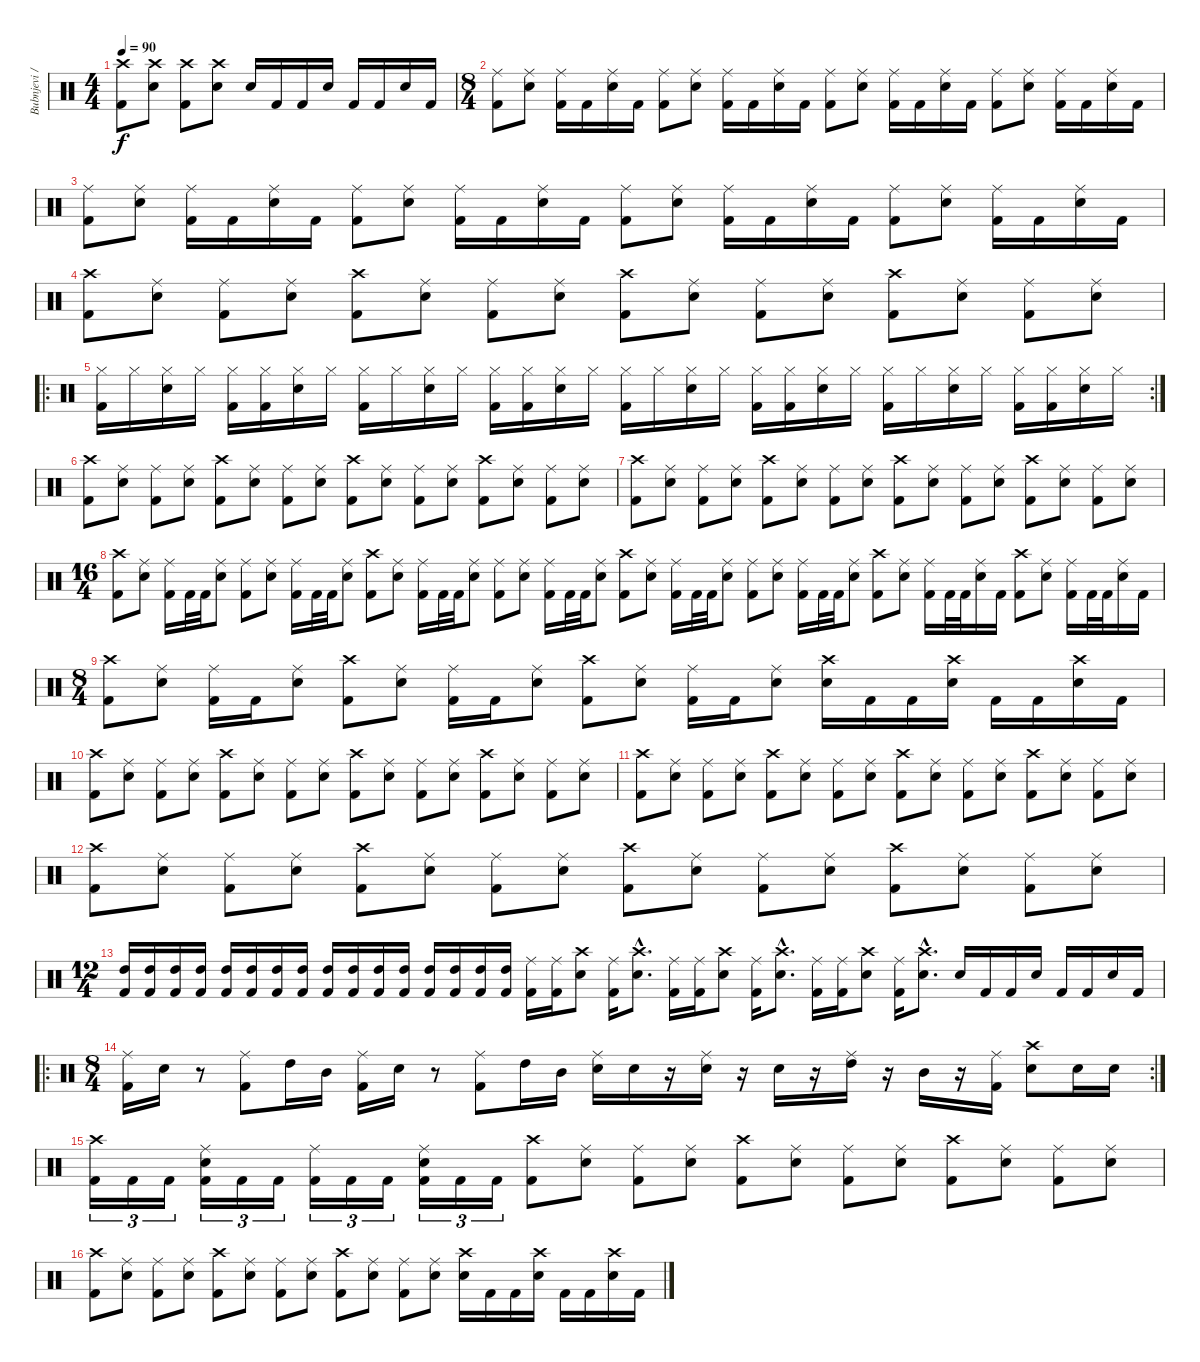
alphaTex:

\track ("Bubnjevi / Drums" "Bubnjevi /") {instrument percussion}
\staff {score}
\articulation defaults
\ts (4 4)
\tempo 90
\clef neutral
\ks c
("Kick (hit) 2" "Crash high (hit)").8{dy f} ("Snare (hit) 2" "Crash high (hit)").8 ("Kick (hit) 2" "Crash high (hit)").8 ("Snare (hit) 2" "Crash high (hit)").8 "Snare (hit) 2".16 "Kick (hit) 2".16 "Kick (hit) 2".16 "Snare (hit) 2".16 "Kick (hit) 2".16 "Kick (hit) 2".16 "Snare (hit) 2".16 "Kick (hit) 2".16 |
\ts (8 4)
("Kick (hit) 2" "Ride (middle)").8 ("Snare (hit) 2" "Ride (middle)").8 ("Kick (hit) 2" "Ride (middle)").16 "Kick (hit) 2".16 ("Snare (hit) 2" "Ride (middle)").16 "Kick (hit) 2".16 ("Kick (hit) 2" "Ride (middle)").8 ("Snare (hit) 2" "Ride (middle)").8 ("Kick (hit) 2" "Ride (middle)").16 "Kick (hit) 2".16 ("Snare (hit) 2" "Ride (middle)").16 "Kick (hit) 2".16 ("Kick (hit) 2" "Ride (middle)").8 ("Snare (hit) 2" "Ride (middle)").8 ("Kick (hit) 2" "Ride (middle)").16 "Kick (hit) 2".16 ("Snare (hit) 2" "Ride (middle)").16 "Kick (hit) 2".16 ("Kick (hit) 2" "Ride (middle)").8 ("Snare (hit) 2" "Ride (middle)").8 ("Kick (hit) 2" "Ride (middle)").16 "Kick (hit) 2".16 ("Snare (hit) 2" "Ride (middle)").16 "Kick (hit) 2".16 |
("Kick (hit) 2" "Ride (middle)").8 ("Snare (hit) 2" "Ride (middle)").8 ("Kick (hit) 2" "Ride (middle)").16 "Kick (hit) 2".16 ("Snare (hit) 2" "Ride (middle)").16 "Kick (hit) 2".16 ("Kick (hit) 2" "Ride (middle)").8 ("Snare (hit) 2" "Ride (middle)").8 ("Kick (hit) 2" "Ride (middle)").16 "Kick (hit) 2".16 ("Snare (hit) 2" "Ride (middle)").16 "Kick (hit) 2".16 ("Kick (hit) 2" "Ride (middle)").8 ("Snare (hit) 2" "Ride (middle)").8 ("Kick (hit) 2" "Ride (middle)").16 "Kick (hit) 2".16 ("Snare (hit) 2" "Ride (middle)").16 "Kick (hit) 2".16 ("Kick (hit) 2" "Ride (middle)").8 ("Snare (hit) 2" "Ride (middle)").8 ("Kick (hit) 2" "Ride (middle)").16 "Kick (hit) 2".16 ("Snare (hit) 2" "Ride (middle)").16 "Kick (hit) 2".16 |
("Kick (hit) 2" "Crash high (hit)").8 ("Snare (hit) 2" "Ride (middle)").8 ("Kick (hit) 2" "Ride (middle)").8 ("Snare (hit) 2" "Ride (middle)").8 ("Kick (hit) 2" "Crash high (hit)").8 ("Snare (hit) 2" "Ride (middle)").8 ("Kick (hit) 2" "Ride (middle)").8 ("Snare (hit) 2" "Ride (middle)").8 ("Kick (hit) 2" "Crash high (hit)").8 ("Snare (hit) 2" "Ride (middle)").8 ("Kick (hit) 2" "Ride (middle)").8 ("Snare (hit) 2" "Ride (middle)").8 ("Kick (hit) 2" "Crash high (hit)").8 ("Snare (hit) 2" "Ride (middle)").8 ("Kick (hit) 2" "Ride (middle)").8 ("Snare (hit) 2" "Ride (middle)").8 |
\ro
\rc 2
("Kick (hit) 2" "Hi-Hat (closed)").16 "Hi-Hat (closed)".16 ("Snare (hit) 2" "Hi-Hat (closed)").16 "Hi-Hat (closed)".16 ("Kick (hit) 2" "Hi-Hat (closed)").16 ("Kick (hit) 2" "Hi-Hat (closed)").16 ("Snare (hit) 2" "Hi-Hat (closed)").16 "Hi-Hat (closed)".16 ("Kick (hit) 2" "Hi-Hat (closed)").16 "Hi-Hat (closed)".16 ("Snare (hit) 2" "Hi-Hat (closed)").16 "Hi-Hat (closed)".16 ("Kick (hit) 2" "Hi-Hat (closed)").16 ("Kick (hit) 2" "Hi-Hat (closed)").16 ("Snare (hit) 2" "Hi-Hat (closed)").16 "Hi-Hat (closed)".16 ("Kick (hit) 2" "Hi-Hat (closed)").16 "Hi-Hat (closed)".16 ("Snare (hit) 2" "Hi-Hat (closed)").16 "Hi-Hat (closed)".16 ("Kick (hit) 2" "Hi-Hat (closed)").16 ("Kick (hit) 2" "Hi-Hat (closed)").16 ("Snare (hit) 2" "Hi-Hat (closed)").16 "Hi-Hat (closed)".16 ("Kick (hit) 2" "Hi-Hat (closed)").16 "Hi-Hat (closed)".16 ("Snare (hit) 2" "Hi-Hat (closed)").16 "Hi-Hat (closed)".16 ("Kick (hit) 2" "Hi-Hat (closed)").16 ("Kick (hit) 2" "Hi-Hat (closed)").16 ("Snare (hit) 2" "Hi-Hat (closed)").16 "Hi-Hat (closed)".16 |
("Kick (hit) 2" "Crash high (hit)").8 ("Snare (hit) 2" "Ride (middle)").8 ("Kick (hit) 2" "Ride (middle)").8 ("Snare (hit) 2" "Ride (middle)").8 ("Kick (hit) 2" "Crash high (hit)").8 ("Snare (hit) 2" "Ride (middle)").8 ("Kick (hit) 2" "Ride (middle)").8 ("Snare (hit) 2" "Ride (middle)").8 ("Kick (hit) 2" "Crash high (hit)").8 ("Snare (hit) 2" "Ride (middle)").8 ("Kick (hit) 2" "Ride (middle)").8 ("Snare (hit) 2" "Ride (middle)").8 ("Kick (hit) 2" "Crash high (hit)").8 ("Snare (hit) 2" "Ride (middle)").8 ("Kick (hit) 2" "Ride (middle)").8 ("Snare (hit) 2" "Ride (middle)").8 |
("Kick (hit) 2" "Crash high (hit)").8 ("Snare (hit) 2" "Ride (middle)").8 ("Kick (hit) 2" "Ride (middle)").8 ("Snare (hit) 2" "Ride (middle)").8 ("Kick (hit) 2" "Crash high (hit)").8 ("Snare (hit) 2" "Ride (middle)").8 ("Kick (hit) 2" "Ride (middle)").8 ("Snare (hit) 2" "Ride (middle)").8 ("Kick (hit) 2" "Crash high (hit)").8 ("Snare (hit) 2" "Ride (middle)").8 ("Kick (hit) 2" "Ride (middle)").8 ("Snare (hit) 2" "Ride (middle)").8 ("Kick (hit) 2" "Crash high (hit)").8 ("Snare (hit) 2" "Ride (middle)").8 ("Kick (hit) 2" "Ride (middle)").8 ("Snare (hit) 2" "Ride (middle)").8 |
\ts (16 4)
("Kick (hit) 2" "Crash high (hit)").8 ("Snare (hit) 2" "Ride (middle)").8 ("Kick (hit) 2" "Ride (middle)").16 "Kick (hit) 2".32 "Kick (hit) 2".32 ("Snare (hit) 2" "Ride (middle)").8 ("Kick (hit) 2" "Ride (middle)").8 ("Snare (hit) 2" "Ride (middle)").8 ("Kick (hit) 2" "Ride (middle)").16 "Kick (hit) 2".32 "Kick (hit) 2".32 ("Snare (hit) 2" "Ride (middle)").8 ("Kick (hit) 2" "Crash high (hit)").8 ("Snare (hit) 2" "Ride (middle)").8 ("Kick (hit) 2" "Ride (middle)").16 "Kick (hit) 2".32 "Kick (hit) 2".32 ("Snare (hit) 2" "Ride (middle)").8 ("Kick (hit) 2" "Ride (middle)").8 ("Snare (hit) 2" "Ride (middle)").8 ("Kick (hit) 2" "Ride (middle)").16 "Kick (hit) 2".32 "Kick (hit) 2".32 ("Snare (hit) 2" "Ride (middle)").8 ("Kick (hit) 2" "Crash high (hit)").8 ("Snare (hit) 2" "Ride (middle)").8 ("Kick (hit) 2" "Ride (middle)").16 "Kick (hit) 2".32 "Kick (hit) 2".32 ("Snare (hit) 2" "Ride (middle)").8 ("Kick (hit) 2" "Ride (middle)").8 ("Snare (hit) 2" "Ride (middle)").8 ("Kick (hit) 2" "Ride (middle)").16 "Kick (hit) 2".32 "Kick (hit) 2".32 ("Snare (hit) 2" "Ride (middle)").8 ("Kick (hit) 2" "Crash high (hit)").8 ("Snare (hit) 2" "Ride (middle)").8 ("Kick (hit) 2" "Ride (middle)").16 "Kick (hit) 2".32 "Kick (hit) 2".32 ("Snare (hit) 2" "Ride (middle)").16 "Kick (hit) 2".16 ("Kick (hit) 2" "Crash high (hit)").8 ("Snare (hit) 2" "Ride (middle)").8 ("Kick (hit) 2" "Ride (middle)").16 "Kick (hit) 2".32 "Kick (hit) 2".32 ("Snare (hit) 2" "Ride (middle)").16 "Kick (hit) 2".16 |
\ts (8 4)
("Kick (hit) 2" "Crash high (hit)").8 ("Snare (hit) 2" "Ride (middle)").8 ("Kick (hit) 2" "Ride (middle)").16 "Kick (hit) 2".16 ("Snare (hit) 2" "Ride (middle)").8 ("Kick (hit) 2" "Crash high (hit)").8 ("Snare (hit) 2" "Ride (middle)").8 ("Kick (hit) 2" "Ride (middle)").16 "Kick (hit) 2".16 ("Snare (hit) 2" "Ride (middle)").8 ("Kick (hit) 2" "Crash high (hit)").8 ("Snare (hit) 2" "Ride (middle)").8 ("Kick (hit) 2" "Ride (middle)").16 "Kick (hit) 2".16 ("Snare (hit) 2" "Ride (middle)").8 ("Snare (hit) 2" "Crash high (hit)").16 "Kick (hit) 2".16 "Kick (hit) 2".16 ("Snare (hit) 2" "Crash high (hit)").16 "Kick (hit) 2".16 "Kick (hit) 2".16 ("Snare (hit) 2" "Crash high (hit)").16 "Kick (hit) 2".16 |
("Kick (hit) 2" "Crash high (hit)").8 ("Snare (hit) 2" "Ride (middle)").8 ("Kick (hit) 2" "Ride (middle)").8 ("Snare (hit) 2" "Ride (middle)").8 ("Kick (hit) 2" "Crash high (hit)").8 ("Snare (hit) 2" "Ride (middle)").8 ("Kick (hit) 2" "Ride (middle)").8 ("Snare (hit) 2" "Ride (middle)").8 ("Kick (hit) 2" "Crash high (hit)").8 ("Snare (hit) 2" "Ride (middle)").8 ("Kick (hit) 2" "Ride (middle)").8 ("Snare (hit) 2" "Ride (middle)").8 ("Kick (hit) 2" "Crash high (hit)").8 ("Snare (hit) 2" "Ride (middle)").8 ("Kick (hit) 2" "Ride (middle)").8 ("Snare (hit) 2" "Ride (middle)").8 |
("Kick (hit) 2" "Crash high (hit)").8 ("Snare (hit) 2" "Ride (middle)").8 ("Kick (hit) 2" "Ride (middle)").8 ("Snare (hit) 2" "Ride (middle)").8 ("Kick (hit) 2" "Crash high (hit)").8 ("Snare (hit) 2" "Ride (middle)").8 ("Kick (hit) 2" "Ride (middle)").8 ("Snare (hit) 2" "Ride (middle)").8 ("Kick (hit) 2" "Crash high (hit)").8 ("Snare (hit) 2" "Ride (middle)").8 ("Kick (hit) 2" "Ride (middle)").8 ("Snare (hit) 2" "Ride (middle)").8 ("Kick (hit) 2" "Crash high (hit)").8 ("Snare (hit) 2" "Ride (middle)").8 ("Kick (hit) 2" "Ride (middle)").8 ("Snare (hit) 2" "Ride (middle)").8 |
("Kick (hit) 2" "Crash high (hit)").8 ("Snare (hit) 2" "Ride (middle)").8 ("Kick (hit) 2" "Ride (middle)").8 ("Snare (hit) 2" "Ride (middle)").8 ("Kick (hit) 2" "Crash high (hit)").8 ("Snare (hit) 2" "Ride (middle)").8 ("Kick (hit) 2" "Ride (middle)").8 ("Snare (hit) 2" "Ride (middle)").8 ("Kick (hit) 2" "Crash high (hit)").8 ("Snare (hit) 2" "Ride (middle)").8 ("Kick (hit) 2" "Ride (middle)").8 ("Snare (hit) 2" "Ride (middle)").8 ("Kick (hit) 2" "Crash high (hit)").8 ("Snare (hit) 2" "Ride (middle)").8 ("Kick (hit) 2" "Ride (middle)").8 ("Snare (hit) 2" "Ride (middle)").8 |
\ts (12 4)
("Kick (hit) 2" "High Tom (hit)").16 ("Kick (hit) 2" "High Tom (hit)").16 ("Kick (hit) 2" "High Tom (hit)").16 ("Kick (hit) 2" "High Tom (hit)").16 ("Kick (hit) 2" "High Tom (hit)").16 ("Kick (hit) 2" "High Tom (hit)").16 ("Kick (hit) 2" "High Tom (hit)").16 ("Kick (hit) 2" "High Tom (hit)").16 ("Kick (hit) 2" "High Tom (hit)").16 ("Kick (hit) 2" "High Tom (hit)").16 ("Kick (hit) 2" "High Tom (hit)").16 ("Kick (hit) 2" "High Tom (hit)").16 ("Kick (hit) 2" "High Tom (hit)").16 ("Kick (hit) 2" "High Tom (hit)").16 ("Kick (hit) 2" "High Tom (hit)").16 ("Kick (hit) 2" "High Tom (hit)").16 ("Kick (hit) 2" "Ride (middle)").16 ("Kick (hit) 2" "Ride (middle)").16 ("Snare (hit) 2" "Crash high (hit)").8 ("Kick (hit) 2" "Ride (middle)").16 ("Snare (hit) 2"{hac} "Crash high (hit)"{hac}).8{d} ("Kick (hit) 2" "Ride (middle)").16 ("Kick (hit) 2" "Ride (middle)").16 ("Snare (hit) 2" "Crash high (hit)").8 ("Kick (hit) 2" "Ride (middle)").16 ("Snare (hit) 2"{hac} "Crash high (hit)"{hac}).8{d} ("Kick (hit) 2" "Ride (middle)").16 ("Kick (hit) 2" "Ride (middle)").16 ("Snare (hit) 2" "Crash high (hit)").8 ("Kick (hit) 2" "Ride (middle)").16 ("Snare (hit) 2"{hac} "Crash high (hit)"{hac}).8{d} "Snare (hit) 2".16 "Kick (hit) 2".16 "Kick (hit) 2".16 "Snare (hit) 2".16 "Kick (hit) 2".16 "Kick (hit) 2".16 "Snare (hit) 2".16 "Kick (hit) 2".16 |
\ro
\rc 2
\ts (8 4)
("Kick (hit) 2" "Ride (middle)").16 "Snare (hit) 2".16 r.8 ("Kick (hit) 2" "Ride (middle)").8 "High Tom (hit)".16 "Mid Tom (hit)".16 ("Kick (hit) 2" "Ride (middle)").16 "Snare (hit) 2".16 r.8 ("Kick (hit) 2" "Ride (middle)").8 "High Tom (hit)".16 "Mid Tom (hit)".16 ("Snare (hit) 2" "Ride (middle)").16 "Snare (hit) 2".16 r.16 ("Snare (hit) 2" "Ride (middle)").16 r.16 "Snare (hit) 2".16 r.16 ("High Tom (hit)" "Ride (middle)").16 r.16 "Mid Tom (hit)".16 r.16 ("Kick (hit) 2" "Ride (middle)").16 ("Snare (hit) 2" "Crash high (hit)").8 "Snare (hit) 2".16 "Snare (hit) 2".16 |
("Kick (hit) 2" "Crash high (hit)").16{tu (3 2)} "Kick (hit) 2".16{tu (3 2)} "Kick (hit) 2".16{tu (3 2)} ("Kick (hit) 2" "Snare (hit) 2" "Ride (middle)").16{tu (3 2)} "Kick (hit) 2".16{tu (3 2)} "Kick (hit) 2".16{tu (3 2)} ("Kick (hit) 2" "Ride (middle)").16{tu (3 2)} "Kick (hit) 2".16{tu (3 2)} "Kick (hit) 2".16{tu (3 2)} ("Kick (hit) 2" "Snare (hit) 2" "Ride (middle)").16{tu (3 2)} "Kick (hit) 2".16{tu (3 2)} "Kick (hit) 2".16{tu (3 2)} ("Kick (hit) 2" "Crash high (hit)").8 ("Snare (hit) 2" "Ride (middle)").8 ("Kick (hit) 2" "Ride (middle)").8 ("Snare (hit) 2" "Ride (middle)").8 ("Kick (hit) 2" "Crash high (hit)").8 ("Snare (hit) 2" "Ride (middle)").8 ("Kick (hit) 2" "Ride (middle)").8 ("Snare (hit) 2" "Ride (middle)").8 ("Kick (hit) 2" "Crash high (hit)").8 ("Snare (hit) 2" "Ride (middle)").8 ("Kick (hit) 2" "Ride (middle)").8 ("Snare (hit) 2" "Ride (middle)").8 |
("Kick (hit) 2" "Crash high (hit)").8 ("Snare (hit) 2" "Ride (middle)").8 ("Kick (hit) 2" "Ride (middle)").8 ("Snare (hit) 2" "Ride (middle)").8 ("Kick (hit) 2" "Crash high (hit)").8 ("Snare (hit) 2" "Ride (middle)").8 ("Kick (hit) 2" "Ride (middle)").8 ("Snare (hit) 2" "Ride (middle)").8 ("Kick (hit) 2" "Crash high (hit)").8 ("Snare (hit) 2" "Ride (middle)").8 ("Kick (hit) 2" "Ride (middle)").8 ("Snare (hit) 2" "Ride (middle)").8 ("Snare (hit) 2" "Crash high (hit)").16 "Kick (hit) 2".16 "Kick (hit) 2".16 ("Snare (hit) 2" "Crash high (hit)").16 "Kick (hit) 2".16 "Kick (hit) 2".16 ("Snare (hit) 2" "Crash high (hit)").16 "Kick (hit) 2".16
